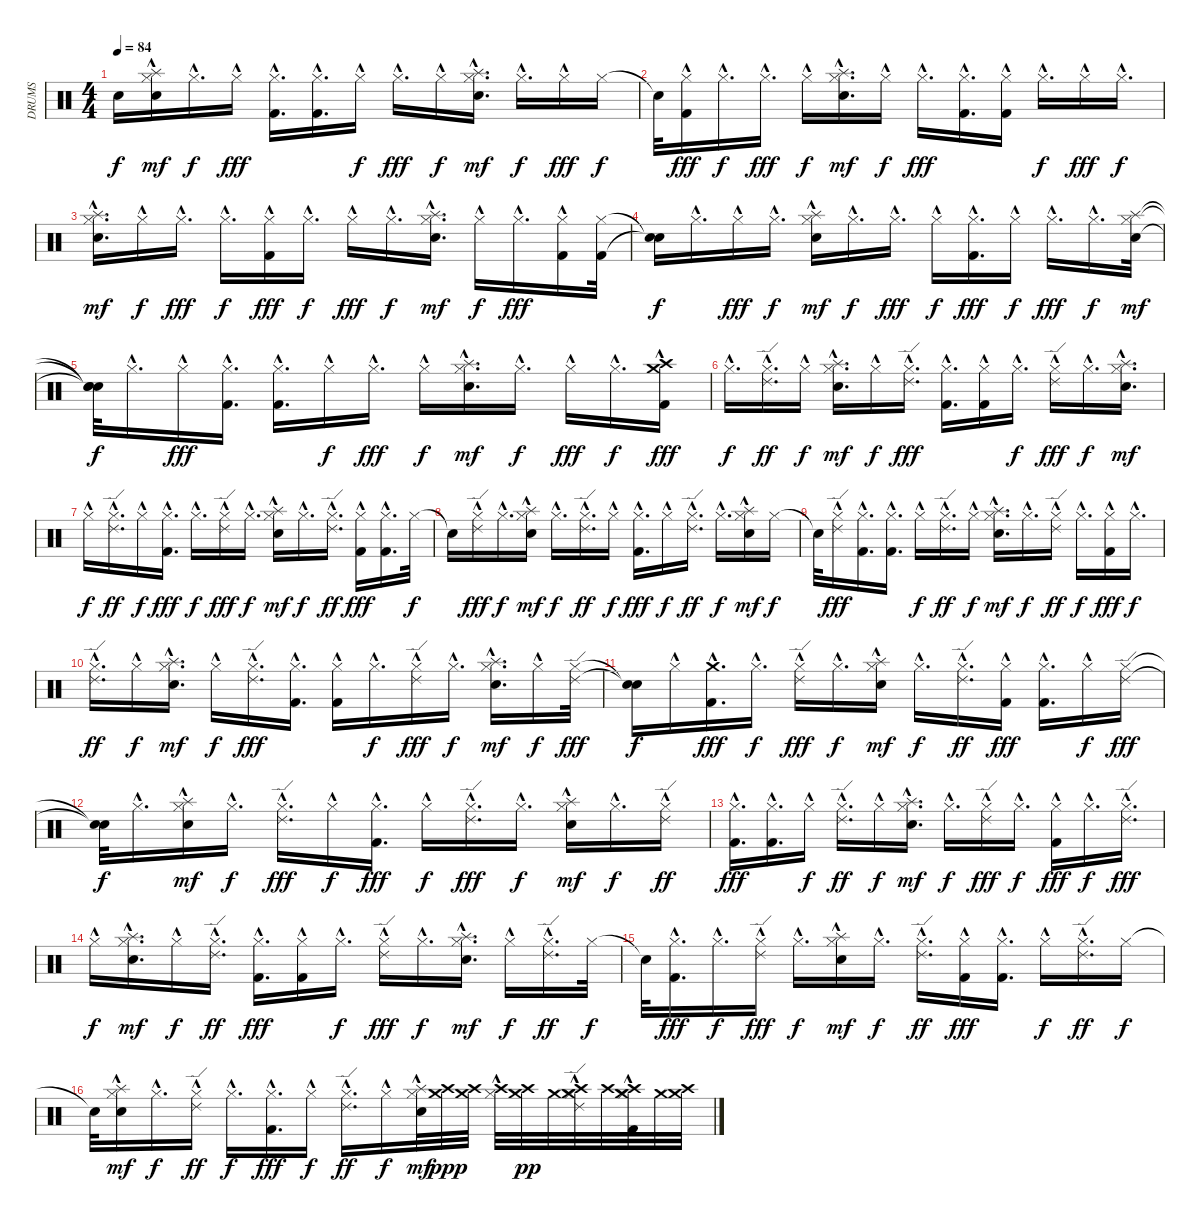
\track ("DRUMS" "DRUMS") {instrument percussion}
\staff {score}
\articulation defaults
\ts (4 4)
\tempo 84
\clef neutral
\ks c "Snare (hit)"{t}.16{dy f}
("Snare (hit) 2"{hac} "Hi-Hat (closed)"{hac} "Splash (hit)"{hac}).16{dy mf} "Hi-Hat (closed)"{hac}.16{d dy f} "Hi-Hat (closed)"{hac}.16{dy fff} ("Kick (hit) 2"{hac} "Hi-Hat (closed)"{hac}).16{d} ("Hi-Hat (closed)"{hac} "Kick (hit) 2"{hac}).16{d} "Hi-Hat (closed)"{hac}.16{dy f} "Hi-Hat (closed)"{hac}.16{d dy fff} "Hi-Hat (closed)"{hac}.16{dy f} ("Hi-Hat (closed)"{hac} "Snare (hit) 2"{hac} "Splash (hit)"{hac}).16{d dy mf} "Hi-Hat (closed)"{hac}.16{d dy f} "Hi-Hat (closed)"{hac}.16{dy fff} "Hi-Hat (closed)".16{dy f} |
"Snare (hit)"{t}.32 ("Kick (hit) 2"{hac} "Hi-Hat (closed)"{hac}).16{dy fff} "Hi-Hat (closed)"{hac}.16{d dy f} "Hi-Hat (closed)"{hac}.16{d dy fff} "Hi-Hat (closed)"{hac}.16{dy f} ("Snare (hit) 2"{hac} "Hi-Hat (closed)"{hac} "Splash (hit)"{hac}).16{d dy mf} "Hi-Hat (closed)"{hac}.16{dy f} "Hi-Hat (closed)"{hac}.16{d dy fff} ("Hi-Hat (closed)"{hac} "Kick (hit) 2"{hac}).16{d} ("Kick (hit) 2"{hac} "Hi-Hat (closed)"{hac}).16 "Hi-Hat (closed)"{hac}.16{d dy f} "Hi-Hat (closed)"{hac}.16{dy fff} "Hi-Hat (closed)"{hac}.16{d dy f} |
("Hi-Hat (closed)"{hac} "Snare (hit) 2"{hac} "Splash (hit)"{hac}).16{d dy mf} "Hi-Hat (closed)"{hac}.16{dy f} "Hi-Hat (closed)"{hac}.16{d dy fff} "Hi-Hat (closed)"{hac}.16{d dy f} ("Hi-Hat (closed)"{hac} "Kick (hit) 2"{hac}).16{dy fff} "Hi-Hat (closed)"{hac}.16{d dy f} "Hi-Hat (closed)"{hac}.16{dy fff} "Hi-Hat (closed)"{hac}.16{d dy f} ("Snare (hit) 2"{hac} "Hi-Hat (closed)"{hac} "Splash (hit)"{hac}).16{d dy mf} "Hi-Hat (closed)"{hac}.16{dy f} "Hi-Hat (closed)"{hac}.16{d dy fff} ("Hi-Hat (closed)"{hac} "Kick (hit) 2"{hac}).16 ("Kick (hit) 2" "Hi-Hat (closed)").32 |
("Snare (hit)"{t} "Snare (hit)"{t}).16{dy f} "Hi-Hat (closed)"{hac}.16{d} "Hi-Hat (closed)"{hac}.16{dy fff} "Hi-Hat (closed)"{hac}.16{d dy f} ("Hi-Hat (closed)"{hac} "Snare (hit) 2"{hac} "Splash (hit)"{hac}).16{dy mf} "Hi-Hat (closed)"{hac}.16{d dy f} "Hi-Hat (closed)"{hac}.16{d dy fff} "Hi-Hat (closed)"{hac}.16{dy f} ("Kick (hit) 2"{hac} "Hi-Hat (closed)"{hac}).16{d dy fff} "Hi-Hat (closed)"{hac}.16{dy f} "Hi-Hat (closed)"{hac}.16{d dy fff} "Hi-Hat (closed)"{hac}.16{d dy f} ("Hi-Hat (closed)" "Snare (hit) 2" "Splash (hit)").32{dy mf} |
("Snare (hit)"{t} "Snare (hit)"{t} "Snare (hit)"{t}).32{dy f} "Hi-Hat (closed)"{hac}.16{d} "Hi-Hat (closed)"{hac}.16{dy fff} ("Hi-Hat (closed)"{hac} "Kick (hit) 2"{hac}).16{d} ("Hi-Hat (closed)"{hac} "Kick (hit) 2"{hac}).16{d} "Hi-Hat (closed)"{hac}.16{dy f} "Hi-Hat (closed)"{hac}.16{d dy fff} "Hi-Hat (closed)"{hac}.16{dy f} ("Hi-Hat (closed)"{hac} "Snare (hit) 2"{hac} "Splash (hit)"{hac}).16{d dy mf} "Hi-Hat (closed)"{hac}.16{d dy f} "Hi-Hat (closed)"{hac}.16{dy fff} "Hi-Hat (closed)"{hac}.16{d dy f} ("Crash medium (hit)" "Kick (hit) 2"{hac} "Crash high (hit)"{hac}).16{dy fff} |
"Hi-Hat (closed)"{hac}.16{d dy f} ("Hi-Hat (closed)"{hac} "Ride (edge) 2"{hac}).16{d dy ff} "Hi-Hat (closed)"{hac}.16{dy f} ("Snare (hit) 2"{hac} "Hi-Hat (closed)"{hac} "Splash (hit)"{hac}).16{d dy mf} "Hi-Hat (closed)"{hac}.16{dy f} ("Ride (edge) 2"{hac} "Hi-Hat (closed)"{hac}).16{d dy fff} ("Kick (hit) 2"{hac} "Hi-Hat (closed)"{hac}).16{d} ("Kick (hit) 2"{hac} "Hi-Hat (closed)"{hac}).16 "Hi-Hat (closed)"{hac}.16{d dy f} ("Ride (edge) 2"{hac} "Hi-Hat (closed)"{hac}).16{dy fff} "Hi-Hat (closed)"{hac}.16{d dy f} ("Hi-Hat (closed)"{hac} "Snare (hit) 2"{hac} "Splash (hit)"{hac}).16{d dy mf} |
"Hi-Hat (closed)"{hac}.16{dy f} ("Hi-Hat (closed)"{hac} "Ride (edge) 2"{hac}).16{d dy ff} "Hi-Hat (closed)"{hac}.16{dy f} ("Kick (hit) 2"{hac} "Hi-Hat (closed)"{hac}).16{d dy fff} "Hi-Hat (closed)"{hac}.16{d dy f} ("Ride (edge) 2"{hac} "Hi-Hat (closed)"{hac}).16{dy fff} "Hi-Hat (closed)"{hac}.16{d dy f} ("Hi-Hat (closed)"{hac} "Snare (hit) 2"{hac} "Splash (hit)"{hac}).16{dy mf} "Hi-Hat (closed)"{hac}.16{d dy f} ("Hi-Hat (closed)"{hac} "Ride (edge) 2"{hac}).16{d dy ff} ("Hi-Hat (closed)"{hac} "Kick (hit) 2"{hac}).16{dy fff} ("Kick (hit) 2"{hac} "Hi-Hat (closed)"{hac}).16{d} "Hi-Hat (closed)".32{dy f} |
"Snare (hit)"{t}.16 ("Ride (edge) 2"{hac} "Hi-Hat (closed)"{hac}).16{dy fff} "Hi-Hat (closed)"{hac}.16{d dy f} ("Snare (hit) 2"{hac} "Hi-Hat (closed)"{hac} "Splash (hit)"{hac}).16{dy mf} "Hi-Hat (closed)"{hac}.16{d dy f} ("Hi-Hat (closed)"{hac} "Ride (edge) 2"{hac}).16{d dy ff} "Hi-Hat (closed)"{hac}.16{dy f} ("Kick (hit) 2"{hac} "Hi-Hat (closed)"{hac}).16{d dy fff} "Hi-Hat (closed)"{hac}.16{dy f} ("Hi-Hat (closed)"{hac} "Ride (edge) 2"{hac}).16{d dy ff} "Hi-Hat (closed)"{hac}.16{d dy f} ("Snare (hit) 2"{hac} "Hi-Hat (closed)"{hac} "Splash (hit)"{hac}).16{dy mf} "Hi-Hat (closed)".16{dy f} |
"Snare (hit)"{t}.32 ("Ride (edge) 2"{hac} "Hi-Hat (closed)"{hac}).16{dy fff} ("Hi-Hat (closed)"{hac} "Kick (hit) 2"{hac}).16{d} ("Kick (hit) 2"{hac} "Hi-Hat (closed)"{hac}).16{d} "Hi-Hat (closed)"{hac}.16{dy f} ("Hi-Hat (closed)"{hac} "Ride (edge) 2"{hac}).16{d dy ff} "Hi-Hat (closed)"{hac}.16{dy f} ("Snare (hit) 2"{hac} "Hi-Hat (closed)"{hac} "Splash (hit)"{hac}).16{d dy mf} "Hi-Hat (closed)"{hac}.16{d dy f} ("Hi-Hat (closed)"{hac} "Ride (edge) 2"{hac}).16{dy ff} "Hi-Hat (closed)"{hac}.16{d dy f} ("Kick (hit) 2"{hac} "Hi-Hat (closed)"{hac}).16{dy fff} "Hi-Hat (closed)"{hac}.16{d dy f} |
("Hi-Hat (closed)"{hac} "Ride (edge) 2"{hac}).16{d dy ff} "Hi-Hat (closed)"{hac}.16{dy f} ("Hi-Hat (closed)"{hac} "Snare (hit) 2"{hac} "Splash (hit)"{hac}).16{d dy mf} "Hi-Hat (closed)"{hac}.16{dy f} ("Ride (edge) 2"{hac} "Hi-Hat (closed)"{hac}).16{d dy fff} ("Hi-Hat (closed)"{hac} "Kick (hit) 2"{hac}).16{d} ("Hi-Hat (closed)"{hac} "Kick (hit) 2"{hac}).16 "Hi-Hat (closed)"{hac}.16{d dy f} ("Ride (edge) 2"{hac} "Hi-Hat (closed)"{hac}).16{dy fff} "Hi-Hat (closed)"{hac}.16{d dy f} ("Hi-Hat (closed)"{hac} "Snare (hit) 2"{hac} "Splash (hit)"{hac}).16{d dy mf} "Hi-Hat (closed)"{hac}.16{dy f} ("Ride (edge) 2" "Hi-Hat (closed)").32{dy fff} |
("Snare (hit)"{t} "Snare (hit)"{t}).16{dy f} "Hi-Hat (closed)"{hac}.16 ("Kick (hit) 2"{hac} "Crash medium (hit)"{hac}).16{d dy fff} "Hi-Hat (closed)"{hac}.16{d dy f} ("Ride (edge) 2"{hac} "Hi-Hat (closed)"{hac}).16{dy fff} "Hi-Hat (closed)"{hac}.16{d dy f} ("Snare (hit) 2"{hac} "Hi-Hat (closed)"{hac} "Splash (hit)"{hac}).16{dy mf} "Hi-Hat (closed)"{hac}.16{d dy f} ("Hi-Hat (closed)"{hac} "Ride (edge) 2"{hac}).16{d dy ff} ("Kick (hit) 2"{hac} "Hi-Hat (closed)"{hac}).16{dy fff} ("Kick (hit) 2"{hac} "Hi-Hat (closed)"{hac}).16{d} "Hi-Hat (closed)"{hac}.16{dy f} ("Ride (edge) 2" "Hi-Hat (closed)").16{dy fff} |
("Snare (hit)"{t} "Snare (hit)"{t}).32{dy f} "Hi-Hat (closed)"{hac}.16{d} ("Snare (hit) 2"{hac} "Hi-Hat (closed)"{hac} "Splash (hit)"{hac}).16{dy mf} "Hi-Hat (closed)"{hac}.16{d dy f} ("Ride (edge) 2"{hac} "Hi-Hat (closed)"{hac}).16{d dy fff} "Hi-Hat (closed)"{hac}.16{dy f} ("Kick (hit) 2"{hac} "Hi-Hat (closed)"{hac}).16{d dy fff} "Hi-Hat (closed)"{hac}.16{dy f} ("Ride (edge) 2"{hac} "Hi-Hat (closed)"{hac}).16{d dy fff} "Hi-Hat (closed)"{hac}.16{d dy f} ("Snare (hit) 2"{hac} "Hi-Hat (closed)"{hac} "Splash (hit)"{hac}).16{dy mf} "Hi-Hat (closed)"{hac}.16{d dy f} ("Hi-Hat (closed)"{hac} "Ride (edge) 2"{hac}).16{dy ff} |
("Hi-Hat (closed)"{hac} "Kick (hit) 2"{hac}).16{d dy fff} ("Hi-Hat (closed)"{hac} "Kick (hit) 2"{hac}).16{d} "Hi-Hat (closed)"{hac}.16{dy f} ("Hi-Hat (closed)"{hac} "Ride (edge) 2"{hac}).16{d dy ff} "Hi-Hat (closed)"{hac}.16{dy f} ("Snare (hit) 2"{hac} "Hi-Hat (closed)"{hac} "Splash (hit)"{hac}).16{d dy mf} "Hi-Hat (closed)"{hac}.16{d dy f} ("Ride (edge) 2"{hac} "Hi-Hat (closed)"{hac}).16{dy fff} "Hi-Hat (closed)"{hac}.16{d dy f} ("Kick (hit) 2"{hac} "Hi-Hat (closed)"{hac}).16{dy fff} "Hi-Hat (closed)"{hac}.16{d dy f} ("Ride (edge) 2"{hac} "Hi-Hat (closed)"{hac}).16{d dy fff} |
"Hi-Hat (closed)"{hac}.16{dy f} ("Hi-Hat (closed)"{hac} "Snare (hit) 2"{hac} "Splash (hit)"{hac}).16{d dy mf} "Hi-Hat (closed)"{hac}.16{dy f} ("Hi-Hat (closed)"{hac} "Ride (edge) 2"{hac}).16{d dy ff} ("Kick (hit) 2"{hac} "Hi-Hat (closed)"{hac}).16{d dy fff} ("Hi-Hat (closed)"{hac} "Kick (hit) 2"{hac}).16 "Hi-Hat (closed)"{hac}.16{d dy f} ("Ride (edge) 2"{hac} "Hi-Hat (closed)"{hac}).16{dy fff} "Hi-Hat (closed)"{hac}.16{d dy f} ("Hi-Hat (closed)"{hac} "Snare (hit) 2"{hac} "Splash (hit)"{hac}).16{d dy mf} "Hi-Hat (closed)"{hac}.16{dy f} ("Hi-Hat (closed)"{hac} "Ride (edge) 2"{hac}).16{d dy ff} "Hi-Hat (closed)".32{dy f} |
"Snare (hit)"{t}.32 ("Hi-Hat (closed)"{hac} "Kick (hit) 2"{hac}).16{d dy fff} "Hi-Hat (closed)"{hac}.16{d dy f} ("Ride (edge) 2"{hac} "Hi-Hat (closed)"{hac}).16{dy fff} "Hi-Hat (closed)"{hac}.16{d dy f} ("Hi-Hat (closed)"{hac} "Snare (hit) 2"{hac} "Splash (hit)"{hac}).16{dy mf} "Hi-Hat (closed)"{hac}.16{d dy f} ("Hi-Hat (closed)"{hac} "Ride (edge) 2"{hac}).16{d dy ff} ("Hi-Hat (closed)"{hac} "Kick (hit) 2"{hac}).16{dy fff} ("Hi-Hat (closed)"{hac} "Kick (hit) 2"{hac}).16{d} "Hi-Hat (closed)"{hac}.16{dy f} ("Hi-Hat (closed)"{hac} "Ride (edge) 2"{hac}).16{d dy ff} "Hi-Hat (closed)".16{dy f} |
"Snare (hit)"{t}.32 ("Snare (hit) 2"{hac} "Hi-Hat (closed)"{hac} "Splash (hit)"{hac}).16{dy mf} "Hi-Hat (closed)"{hac}.16{d dy f} ("Hi-Hat (closed)"{hac} "Ride (edge) 2"{hac}).16{dy ff} "Hi-Hat (closed)"{hac}.16{d dy f} ("Kick (hit) 2"{hac} "Hi-Hat (closed)"{hac}).16{d dy fff} "Hi-Hat (closed)"{hac}.16{dy f} ("Hi-Hat (closed)"{hac} "Ride (edge) 2"{hac}).16{d dy ff} "Hi-Hat (closed)"{hac}.16{dy f} ("Snare (hit) 2"{hac} "Hi-Hat (closed)"{hac} "Splash (hit)"{hac}).32{dy mf} ("Crash high (hit)" "Crash medium (hit)").32{dy ppp} ("Crash high (hit)" "Crash medium (hit)").32 ("Hi-Hat (closed)"{hac} "Crash high (hit)").32 ("Crash medium (hit)" "Crash high (hit)").32{dy pp} "Crash medium (hit)".32 ("Ride (edge) 2"{hac} "Hi-Hat (closed)"{hac} "Crash high (hit)" "Crash medium (hit)").32 "Crash high (hit)".32 ("Crash medium (hit)" "Hi-Hat (closed)"{hac} "Kick (hit) 2"{hac} "Crash high (hit)").32 "Crash medium (hit)".32 ("Crash high (hit)" "Crash medium (hit)").32
